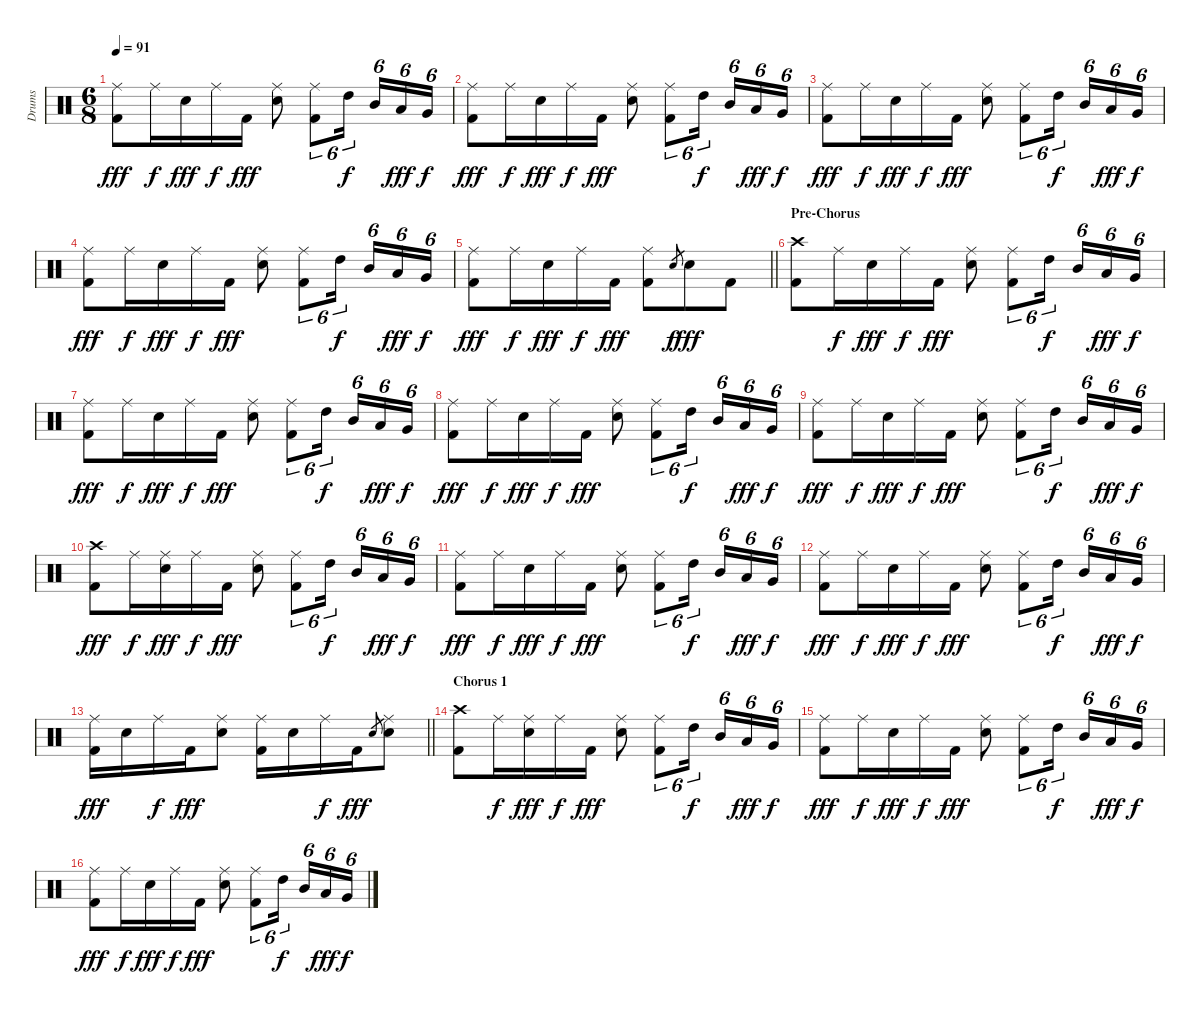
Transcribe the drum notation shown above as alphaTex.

\track ("Drums" "Drums") {instrument percussion}
\staff {score}
\articulation defaults
\ts (6 8)
\tempo 91
\clef neutral
\ks c
("Ride (middle)" "Kick (hit) 2").8{dy fff} "Ride (middle)".16{dy f} "Electric Snare (hit)".16{dy fff} "Ride (middle)".16{dy f} "Kick (hit) 2".16{dy fff} ("Ride (middle)" "Electric Snare (hit)").8 ("Ride (middle)" "Kick (hit) 2").8{tu (6 4)} "High Tom (hit)".16{tu (6 4) dy f} "Mid Tom (hit)".16{tu (6 4)} "Low Tom (hit)".16{tu (6 4) dy fff} "Very Low Tom (hit)".16{tu (6 4) dy f} |
("Ride (middle)" "Kick (hit) 2").8{dy fff} "Ride (middle)".16{dy f} "Electric Snare (hit)".16{dy fff} "Ride (middle)".16{dy f} "Kick (hit) 2".16{dy fff} ("Ride (middle)" "Electric Snare (hit)").8 ("Ride (middle)" "Kick (hit) 2").8{tu (6 4)} "High Tom (hit)".16{tu (6 4) dy f} "Mid Tom (hit)".16{tu (6 4)} "Low Tom (hit)".16{tu (6 4) dy fff} "Very Low Tom (hit)".16{tu (6 4) dy f} |
("Ride (middle)" "Kick (hit) 2").8{dy fff} "Ride (middle)".16{dy f} "Electric Snare (hit)".16{dy fff} "Ride (middle)".16{dy f} "Kick (hit) 2".16{dy fff} ("Ride (middle)" "Electric Snare (hit)").8 ("Ride (middle)" "Kick (hit) 2").8{tu (6 4)} "High Tom (hit)".16{tu (6 4) dy f} "Mid Tom (hit)".16{tu (6 4)} "Low Tom (hit)".16{tu (6 4) dy fff} "Very Low Tom (hit)".16{tu (6 4) dy f} |
("Ride (middle)" "Kick (hit) 2").8{dy fff} "Ride (middle)".16{dy f} "Electric Snare (hit)".16{dy fff} "Ride (middle)".16{dy f} "Kick (hit) 2".16{dy fff} ("Ride (middle)" "Electric Snare (hit)").8 ("Ride (middle)" "Kick (hit) 2").8{tu (6 4)} "High Tom (hit)".16{tu (6 4) dy f} "Mid Tom (hit)".16{tu (6 4)} "Low Tom (hit)".16{tu (6 4) dy fff} "Very Low Tom (hit)".16{tu (6 4) dy f} |
\barLineRight lightlight
("Ride (middle)" "Kick (hit) 2").8{dy fff} "Ride (middle)".16{dy f} "Electric Snare (hit)".16{dy fff} "Ride (middle)".16{dy f} "Kick (hit) 2".16{dy fff} ("Ride (middle)" "Kick (hit) 2").8 "Electric Snare (hit)".8{gr dy f} "Electric Snare (hit)".8{dy fff} "Kick (hit) 2".8 |
\section ("" "Pre-Chorus")
("Crash high (hit)" "Kick (hit) 2").8 "Ride (middle)".16{dy f} "Electric Snare (hit)".16{dy fff} "Ride (middle)".16{dy f} "Kick (hit) 2".16{dy fff} ("Ride (middle)" "Electric Snare (hit)").8 ("Ride (middle)" "Kick (hit) 2").8{tu (6 4)} "High Tom (hit)".16{tu (6 4) dy f} "Mid Tom (hit)".16{tu (6 4)} "Low Tom (hit)".16{tu (6 4) dy fff} "Very Low Tom (hit)".16{tu (6 4) dy f} |
("Ride (middle)" "Kick (hit) 2").8{dy fff} "Ride (middle)".16{dy f} "Electric Snare (hit)".16{dy fff} "Ride (middle)".16{dy f} "Kick (hit) 2".16{dy fff} ("Ride (middle)" "Electric Snare (hit)").8 ("Ride (middle)" "Kick (hit) 2").8{tu (6 4)} "High Tom (hit)".16{tu (6 4) dy f} "Mid Tom (hit)".16{tu (6 4)} "Low Tom (hit)".16{tu (6 4) dy fff} "Very Low Tom (hit)".16{tu (6 4) dy f} |
("Ride (middle)" "Kick (hit) 2").8{dy fff} "Ride (middle)".16{dy f} "Electric Snare (hit)".16{dy fff} "Ride (middle)".16{dy f} "Kick (hit) 2".16{dy fff} ("Ride (middle)" "Electric Snare (hit)").8 ("Ride (middle)" "Kick (hit) 2").8{tu (6 4)} "High Tom (hit)".16{tu (6 4) dy f} "Mid Tom (hit)".16{tu (6 4)} "Low Tom (hit)".16{tu (6 4) dy fff} "Very Low Tom (hit)".16{tu (6 4) dy f} |
("Ride (middle)" "Kick (hit) 2").8{dy fff} "Ride (middle)".16{dy f} "Electric Snare (hit)".16{dy fff} "Ride (middle)".16{dy f} "Kick (hit) 2".16{dy fff} ("Ride (middle)" "Electric Snare (hit)").8 ("Ride (middle)" "Kick (hit) 2").8{tu (6 4)} "High Tom (hit)".16{tu (6 4) dy f} "Mid Tom (hit)".16{tu (6 4)} "Low Tom (hit)".16{tu (6 4) dy fff} "Very Low Tom (hit)".16{tu (6 4) dy f} |
("Crash high (hit)" "Kick (hit) 2").8{dy fff} "Ride (middle)".16{dy f} ("Ride (middle)" "Electric Snare (hit)").16{dy fff} "Ride (middle)".16{dy f} "Kick (hit) 2".16{dy fff} ("Ride (middle)" "Electric Snare (hit)").8 ("Ride (middle)" "Kick (hit) 2").8{tu (6 4)} "High Tom (hit)".16{tu (6 4) dy f} "Mid Tom (hit)".16{tu (6 4)} "Low Tom (hit)".16{tu (6 4) dy fff} "Very Low Tom (hit)".16{tu (6 4) dy f} |
("Ride (middle)" "Kick (hit) 2").8{dy fff} "Ride (middle)".16{dy f} "Electric Snare (hit)".16{dy fff} "Ride (middle)".16{dy f} "Kick (hit) 2".16{dy fff} ("Ride (middle)" "Electric Snare (hit)").8 ("Ride (middle)" "Kick (hit) 2").8{tu (6 4)} "High Tom (hit)".16{tu (6 4) dy f} "Mid Tom (hit)".16{tu (6 4)} "Low Tom (hit)".16{tu (6 4) dy fff} "Very Low Tom (hit)".16{tu (6 4) dy f} |
("Ride (middle)" "Kick (hit) 2").8{dy fff} "Ride (middle)".16{dy f} "Electric Snare (hit)".16{dy fff} "Ride (middle)".16{dy f} "Kick (hit) 2".16{dy fff} ("Ride (middle)" "Electric Snare (hit)").8 ("Ride (middle)" "Kick (hit) 2").8{tu (6 4)} "High Tom (hit)".16{tu (6 4) dy f} "Mid Tom (hit)".16{tu (6 4)} "Low Tom (hit)".16{tu (6 4) dy fff} "Very Low Tom (hit)".16{tu (6 4) dy f} |
\barLineRight lightlight
("Ride (middle)" "Kick (hit) 2").16{dy fff} "Electric Snare (hit)".16 "Ride (middle)".16{dy f} "Kick (hit) 2".16{dy fff} ("Ride (middle)" "Electric Snare (hit)").8 ("Ride (middle)" "Kick (hit) 2").16 "Electric Snare (hit)".16 "Ride (middle)".16{dy f} "Kick (hit) 2".16{dy fff} "Electric Snare (hit)".8{gr} ("Ride (middle)" "Electric Snare (hit)").8 |
\section ("" "Chorus 1")
("Crash high (hit)" "Kick (hit) 2").8 "Ride (middle)".16{dy f} ("Ride (middle)" "Electric Snare (hit)").16{dy fff} "Ride (middle)".16{dy f} "Kick (hit) 2".16{dy fff} ("Ride (middle)" "Electric Snare (hit)").8 ("Ride (middle)" "Kick (hit) 2").8{tu (6 4)} "High Tom (hit)".16{tu (6 4) dy f} "Mid Tom (hit)".16{tu (6 4)} "Low Tom (hit)".16{tu (6 4) dy fff} "Very Low Tom (hit)".16{tu (6 4) dy f} |
("Ride (middle)" "Kick (hit) 2").8{dy fff} "Ride (middle)".16{dy f} "Electric Snare (hit)".16{dy fff} "Ride (middle)".16{dy f} "Kick (hit) 2".16{dy fff} ("Ride (middle)" "Electric Snare (hit)").8 ("Ride (middle)" "Kick (hit) 2").8{tu (6 4)} "High Tom (hit)".16{tu (6 4) dy f} "Mid Tom (hit)".16{tu (6 4)} "Low Tom (hit)".16{tu (6 4) dy fff} "Very Low Tom (hit)".16{tu (6 4) dy f} |
("Ride (middle)" "Kick (hit) 2").8{dy fff} "Ride (middle)".16{dy f} "Electric Snare (hit)".16{dy fff} "Ride (middle)".16{dy f} "Kick (hit) 2".16{dy fff} ("Ride (middle)" "Electric Snare (hit)").8 ("Ride (middle)" "Kick (hit) 2").8{tu (6 4)} "High Tom (hit)".16{tu (6 4) dy f} "Mid Tom (hit)".16{tu (6 4)} "Low Tom (hit)".16{tu (6 4) dy fff} "Very Low Tom (hit)".16{tu (6 4) dy f}
